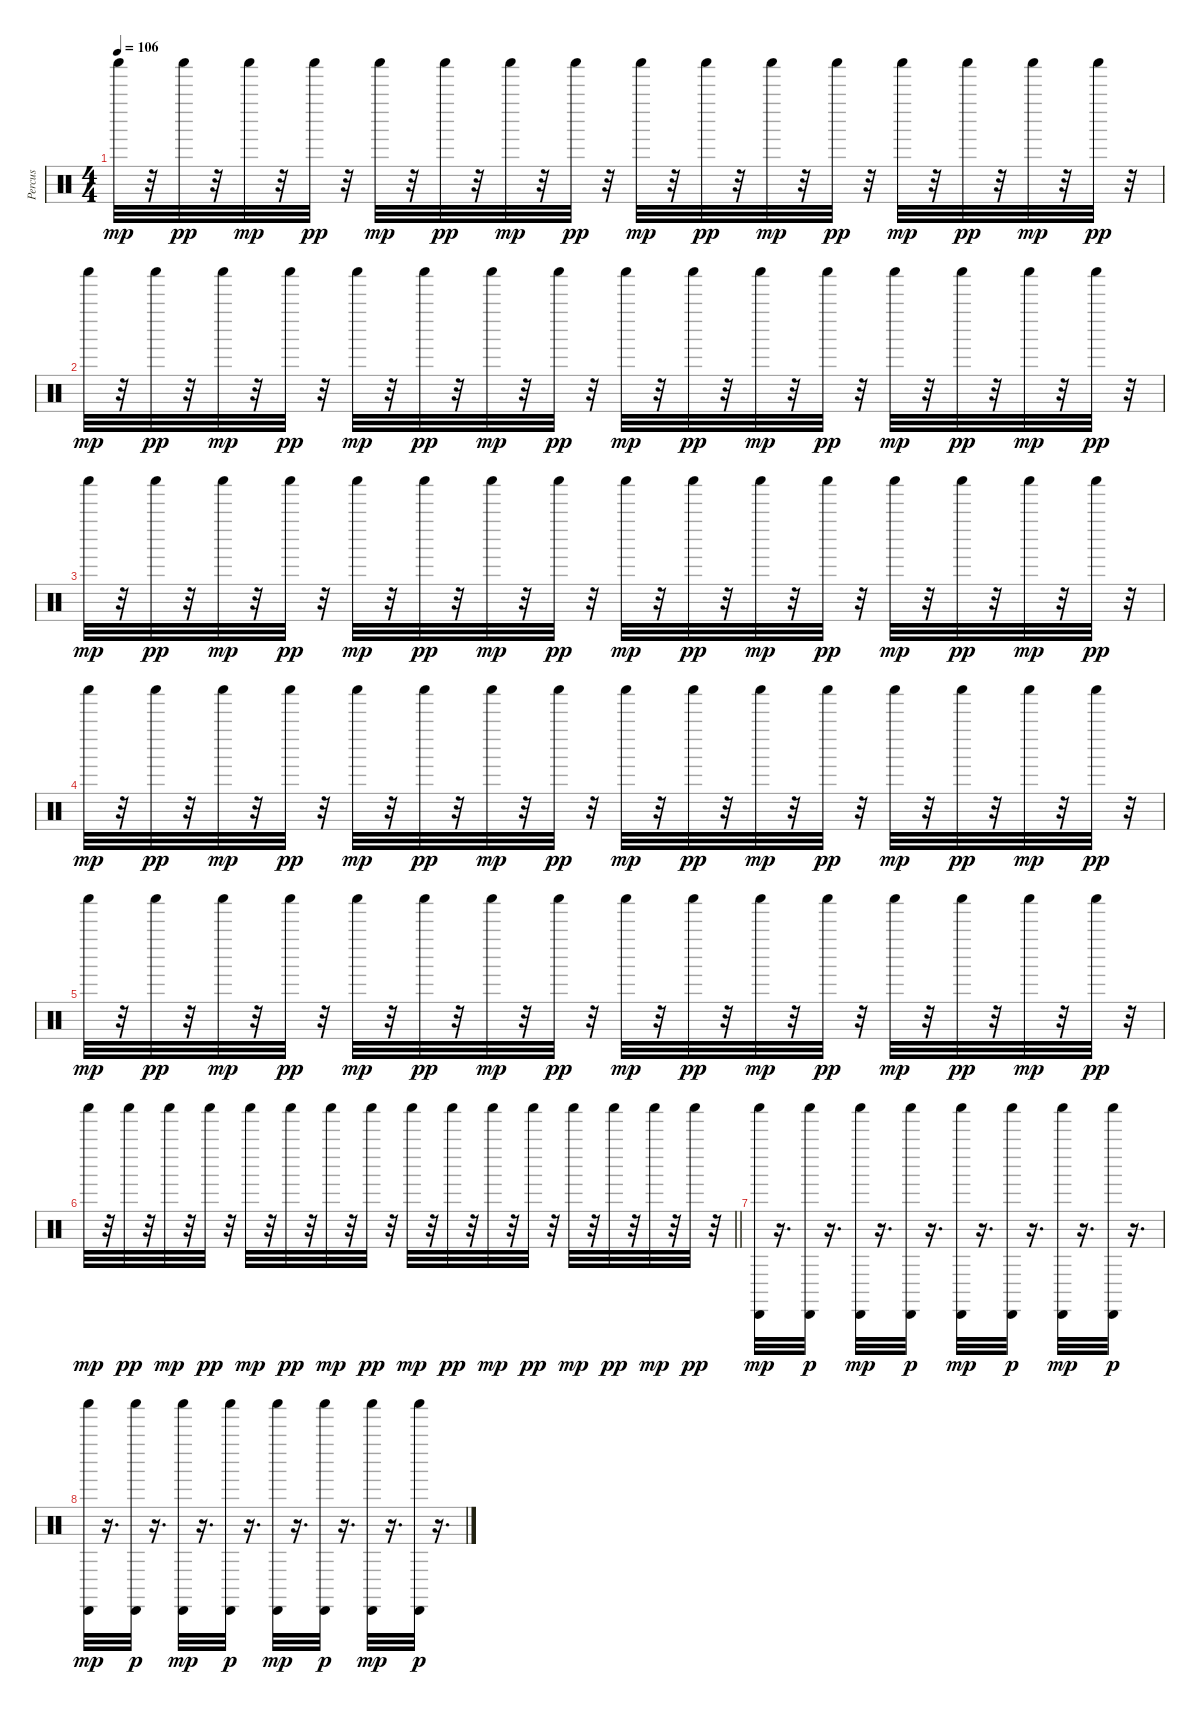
\track ("Percus" "Percus") {instrument percussion}
\staff {score}
\articulation defaults
\ts (4 4)
\tempo 106
\clef neutral
\ks c "Shaker (hit)".32{dy mp}
r.32 "Shaker (hit)".32{dy pp} r.32 "Shaker (hit)".32{dy mp} r.32 "Shaker (hit)".32{dy pp} r.32 "Shaker (hit)".32{dy mp} r.32 "Shaker (hit)".32{dy pp} r.32 "Shaker (hit)".32{dy mp} r.32 "Shaker (hit)".32{dy pp} r.32 "Shaker (hit)".32{dy mp} r.32 "Shaker (hit)".32{dy pp} r.32 "Shaker (hit)".32{dy mp} r.32 "Shaker (hit)".32{dy pp} r.32 "Shaker (hit)".32{dy mp} r.32 "Shaker (hit)".32{dy pp} r.32 "Shaker (hit)".32{dy mp} r.32 "Shaker (hit)".32{dy pp} r.32 |
"Shaker (hit)".32{dy mp} r.32 "Shaker (hit)".32{dy pp} r.32 "Shaker (hit)".32{dy mp} r.32 "Shaker (hit)".32{dy pp} r.32 "Shaker (hit)".32{dy mp} r.32 "Shaker (hit)".32{dy pp} r.32 "Shaker (hit)".32{dy mp} r.32 "Shaker (hit)".32{dy pp} r.32 "Shaker (hit)".32{dy mp} r.32 "Shaker (hit)".32{dy pp} r.32 "Shaker (hit)".32{dy mp} r.32 "Shaker (hit)".32{dy pp} r.32 "Shaker (hit)".32{dy mp} r.32 "Shaker (hit)".32{dy pp} r.32 "Shaker (hit)".32{dy mp} r.32 "Shaker (hit)".32{dy pp} r.32 |
"Shaker (hit)".32{dy mp} r.32 "Shaker (hit)".32{dy pp} r.32 "Shaker (hit)".32{dy mp} r.32 "Shaker (hit)".32{dy pp} r.32 "Shaker (hit)".32{dy mp} r.32 "Shaker (hit)".32{dy pp} r.32 "Shaker (hit)".32{dy mp} r.32 "Shaker (hit)".32{dy pp} r.32 "Shaker (hit)".32{dy mp} r.32 "Shaker (hit)".32{dy pp} r.32 "Shaker (hit)".32{dy mp} r.32 "Shaker (hit)".32{dy pp} r.32 "Shaker (hit)".32{dy mp} r.32 "Shaker (hit)".32{dy pp} r.32 "Shaker (hit)".32{dy mp} r.32 "Shaker (hit)".32{dy pp} r.32 |
"Shaker (hit)".32{dy mp} r.32 "Shaker (hit)".32{dy pp} r.32 "Shaker (hit)".32{dy mp} r.32 "Shaker (hit)".32{dy pp} r.32 "Shaker (hit)".32{dy mp} r.32 "Shaker (hit)".32{dy pp} r.32 "Shaker (hit)".32{dy mp} r.32 "Shaker (hit)".32{dy pp} r.32 "Shaker (hit)".32{dy mp} r.32 "Shaker (hit)".32{dy pp} r.32 "Shaker (hit)".32{dy mp} r.32 "Shaker (hit)".32{dy pp} r.32 "Shaker (hit)".32{dy mp} r.32 "Shaker (hit)".32{dy pp} r.32 "Shaker (hit)".32{dy mp} r.32 "Shaker (hit)".32{dy pp} r.32 |
"Shaker (hit)".32{dy mp} r.32 "Shaker (hit)".32{dy pp} r.32 "Shaker (hit)".32{dy mp} r.32 "Shaker (hit)".32{dy pp} r.32 "Shaker (hit)".32{dy mp} r.32 "Shaker (hit)".32{dy pp} r.32 "Shaker (hit)".32{dy mp} r.32 "Shaker (hit)".32{dy pp} r.32 "Shaker (hit)".32{dy mp} r.32 "Shaker (hit)".32{dy pp} r.32 "Shaker (hit)".32{dy mp} r.32 "Shaker (hit)".32{dy pp} r.32 "Shaker (hit)".32{dy mp} r.32 "Shaker (hit)".32{dy pp} r.32 "Shaker (hit)".32{dy mp} r.32 "Shaker (hit)".32{dy pp} r.32 |
\barLineRight lightlight "Shaker (hit)".32{dy mp}
r.32 "Shaker (hit)".32{dy pp} r.32 "Shaker (hit)".32{dy mp} r.32 "Shaker (hit)".32{dy pp} r.32 "Shaker (hit)".32{dy mp} r.32 "Shaker (hit)".32{dy pp} r.32 "Shaker (hit)".32{dy mp} r.32 "Shaker (hit)".32{dy pp} r.32 "Shaker (hit)".32{dy mp} r.32 "Shaker (hit)".32{dy pp} r.32 "Shaker (hit)".32{dy mp} r.32 "Shaker (hit)".32{dy pp} r.32 "Shaker (hit)".32{dy mp} r.32 "Shaker (hit)".32{dy pp} r.32 "Shaker (hit)".32{dy mp} r.32 "Shaker (hit)".32{dy pp} r.32 |
("Shaker (hit)" "Cabasa (hit)").32{dy mp} r.16{d} ("Shaker (hit)" "Cabasa (hit)").32{dy p} r.16{d} ("Shaker (hit)" "Cabasa (hit)").32{dy mp} r.16{d} ("Shaker (hit)" "Cabasa (hit)").32{dy p} r.16{d} ("Shaker (hit)" "Cabasa (hit)").32{dy mp} r.16{d} ("Shaker (hit)" "Cabasa (hit)").32{dy p} r.16{d} ("Shaker (hit)" "Cabasa (hit)").32{dy mp} r.16{d} ("Shaker (hit)" "Cabasa (hit)").32{dy p} r.16{d} |
("Shaker (hit)" "Cabasa (hit)").32{dy mp} r.16{d} ("Shaker (hit)" "Cabasa (hit)").32{dy p} r.16{d} ("Shaker (hit)" "Cabasa (hit)").32{dy mp} r.16{d} ("Shaker (hit)" "Cabasa (hit)").32{dy p} r.16{d} ("Shaker (hit)" "Cabasa (hit)").32{dy mp} r.16{d} ("Shaker (hit)" "Cabasa (hit)").32{dy p} r.16{d} ("Shaker (hit)" "Cabasa (hit)").32{dy mp} r.16{d} ("Shaker (hit)" "Cabasa (hit)").32{dy p} r.16{d}
